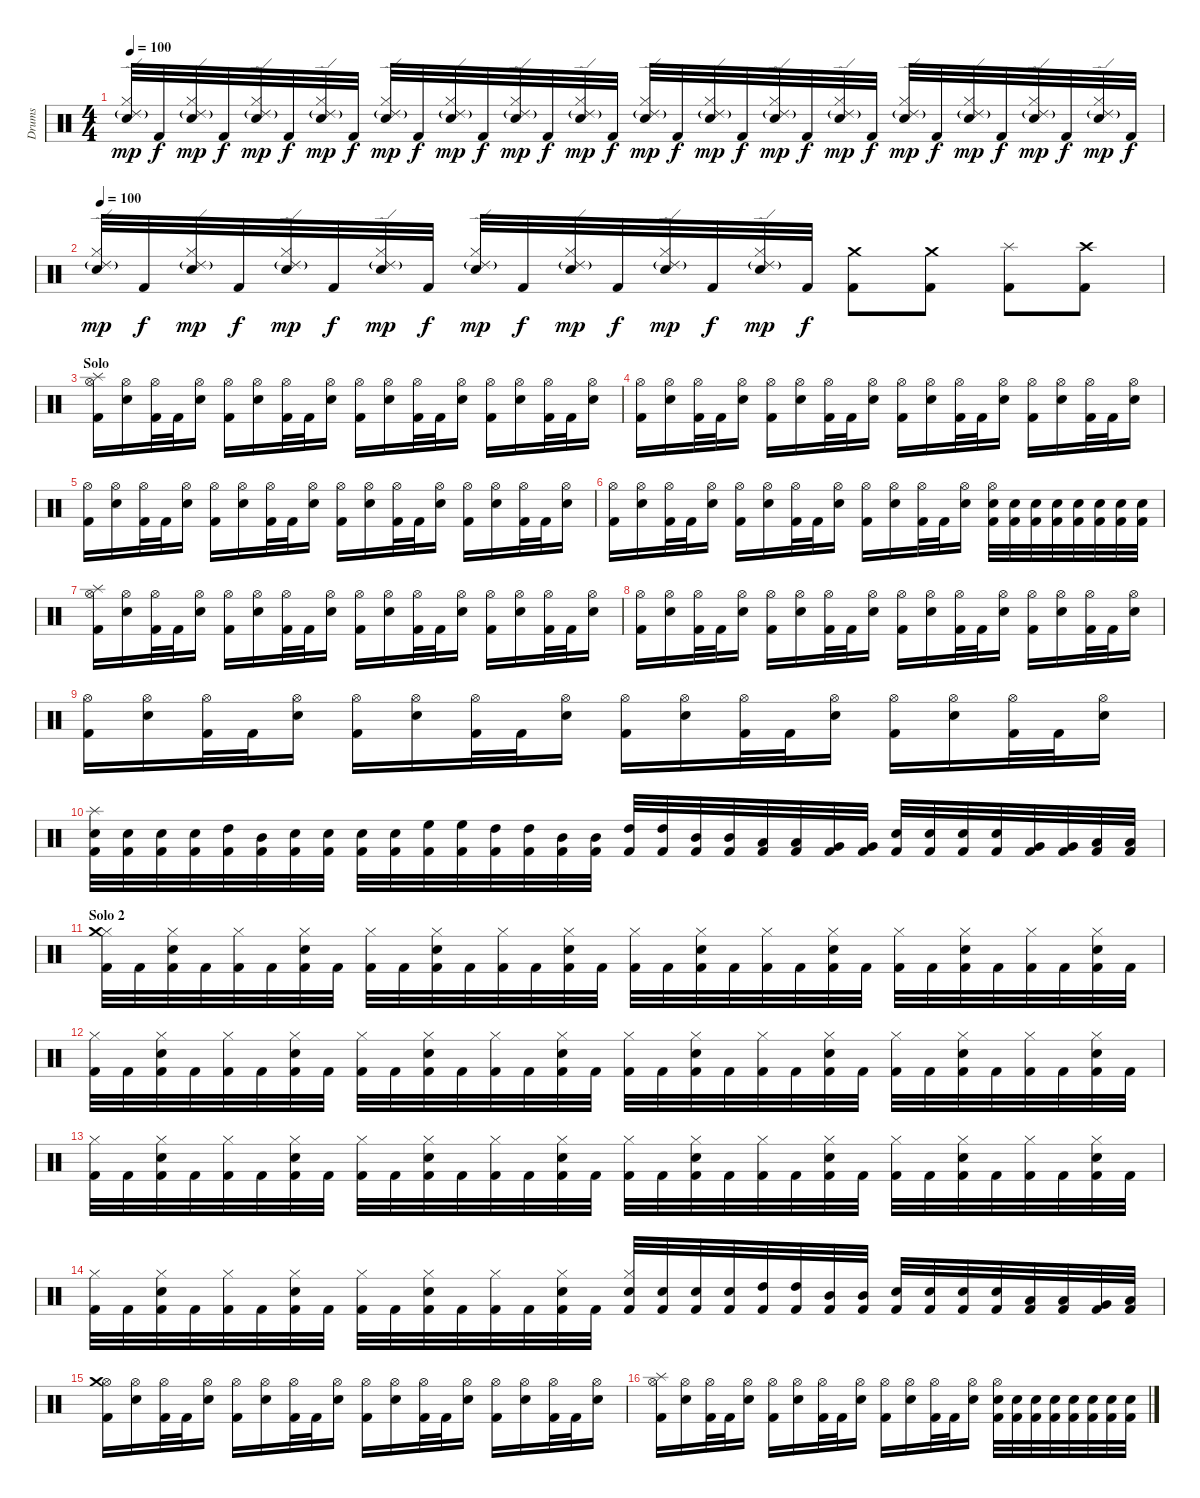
\track ("Drums" "Drums") {instrument percussion}
\staff {score}
\articulation defaults
\ts (4 4)
\tempo 100
\clef neutral
\ks c
("Snare (hit) 2" "Hi-Hat (closed)" "Ride (edge) 2"{g}).32{dy mp} "Kick (hit) 2".32{dy f} ("Snare (hit) 2" "Hi-Hat (closed)" "Ride (edge) 2"{g}).32{dy mp} "Kick (hit) 2".32{dy f} ("Snare (hit) 2" "Hi-Hat (closed)" "Ride (edge) 2"{g}).32{dy mp} "Kick (hit) 2".32{dy f} ("Snare (hit) 2" "Hi-Hat (closed)" "Ride (edge) 2"{g}).32{dy mp} "Kick (hit) 2".32{dy f} ("Snare (hit) 2" "Hi-Hat (closed)" "Ride (edge) 2"{g}).32{dy mp} "Kick (hit) 2".32{dy f} ("Snare (hit) 2" "Hi-Hat (closed)" "Ride (edge) 2"{g}).32{dy mp} "Kick (hit) 2".32{dy f} ("Snare (hit) 2" "Hi-Hat (closed)" "Ride (edge) 2"{g}).32{dy mp} "Kick (hit) 2".32{dy f} ("Snare (hit) 2" "Hi-Hat (closed)" "Ride (edge) 2"{g}).32{dy mp} "Kick (hit) 2".32{dy f} ("Snare (hit) 2" "Hi-Hat (closed)" "Ride (edge) 2"{g}).32{dy mp} "Kick (hit) 2".32{dy f} ("Snare (hit) 2" "Hi-Hat (closed)" "Ride (edge) 2"{g}).32{dy mp} "Kick (hit) 2".32{dy f} ("Snare (hit) 2" "Hi-Hat (closed)" "Ride (edge) 2"{g}).32{dy mp} "Kick (hit) 2".32{dy f} ("Snare (hit) 2" "Hi-Hat (closed)" "Ride (edge) 2"{g}).32{dy mp} "Kick (hit) 2".32{dy f} ("Snare (hit) 2" "Hi-Hat (closed)" "Ride (edge) 2"{g}).32{dy mp} "Kick (hit) 2".32{dy f} ("Snare (hit) 2" "Hi-Hat (closed)" "Ride (edge) 2"{g}).32{dy mp} "Kick (hit) 2".32{dy f} ("Snare (hit) 2" "Hi-Hat (closed)" "Ride (edge) 2"{g}).32{dy mp} "Kick (hit) 2".32{dy f} ("Snare (hit) 2" "Hi-Hat (closed)" "Ride (edge) 2"{g}).32{dy mp} "Kick (hit) 2".32{dy f} |
\tempo 100
("Snare (hit) 2" "Hi-Hat (closed)" "Ride (edge) 2"{g}).32{dy mp} "Kick (hit) 2".32{dy f} ("Snare (hit) 2" "Hi-Hat (closed)" "Ride (edge) 2"{g}).32{dy mp} "Kick (hit) 2".32{dy f} ("Snare (hit) 2" "Hi-Hat (closed)" "Ride (edge) 2"{g}).32{dy mp} "Kick (hit) 2".32{dy f} ("Snare (hit) 2" "Hi-Hat (closed)" "Ride (edge) 2"{g}).32{dy mp} "Kick (hit) 2".32{dy f} ("Snare (hit) 2" "Hi-Hat (closed)" "Ride (edge) 2"{g}).32{dy mp} "Kick (hit) 2".32{dy f} ("Snare (hit) 2" "Hi-Hat (closed)" "Ride (edge) 2"{g}).32{dy mp} "Kick (hit) 2".32{dy f} ("Snare (hit) 2" "Hi-Hat (closed)" "Ride (edge) 2"{g}).32{dy mp} "Kick (hit) 2".32{dy f} ("Snare (hit) 2" "Hi-Hat (closed)" "Ride (edge) 2"{g}).32{dy mp} "Kick (hit) 2".32{dy f} ("Kick (hit) 2" "Crash medium (hit)").8 ("Kick (hit) 2" "Crash medium (hit)").8 ("Kick (hit) 2" "Splash (hit)").8 ("Kick (hit) 2" "Crash high (hit)").8 |
\section ("" "Solo")
("Kick (hit) 2" "Hi-Hat (open)" "Splash (hit)").16 ("Snare (hit) 2" "Hi-Hat (open)").16 ("Kick (hit) 2" "Hi-Hat (open)").32 "Kick (hit) 2".32 ("Snare (hit) 2" "Hi-Hat (open)").16 ("Kick (hit) 2" "Hi-Hat (open)").16 ("Snare (hit) 2" "Hi-Hat (open)").16 ("Kick (hit) 2" "Hi-Hat (open)").32 "Kick (hit) 2".32 ("Snare (hit) 2" "Hi-Hat (open)").16 ("Kick (hit) 2" "Hi-Hat (open)").16 ("Snare (hit) 2" "Hi-Hat (open)").16 ("Kick (hit) 2" "Hi-Hat (open)").32 "Kick (hit) 2".32 ("Snare (hit) 2" "Hi-Hat (open)").16 ("Kick (hit) 2" "Hi-Hat (open)").16 ("Snare (hit) 2" "Hi-Hat (open)").16 ("Kick (hit) 2" "Hi-Hat (open)").32 "Kick (hit) 2".32 ("Snare (hit) 2" "Hi-Hat (open)").16 |
("Kick (hit) 2" "Hi-Hat (open)").16 ("Snare (hit) 2" "Hi-Hat (open)").16 ("Kick (hit) 2" "Hi-Hat (open)").32 "Kick (hit) 2".32 ("Snare (hit) 2" "Hi-Hat (open)").16 ("Kick (hit) 2" "Hi-Hat (open)").16 ("Snare (hit) 2" "Hi-Hat (open)").16 ("Kick (hit) 2" "Hi-Hat (open)").32 "Kick (hit) 2".32 ("Snare (hit) 2" "Hi-Hat (open)").16 ("Kick (hit) 2" "Hi-Hat (open)").16 ("Snare (hit) 2" "Hi-Hat (open)").16 ("Kick (hit) 2" "Hi-Hat (open)").32 "Kick (hit) 2".32 ("Snare (hit) 2" "Hi-Hat (open)").16 ("Kick (hit) 2" "Hi-Hat (open)").16 ("Snare (hit) 2" "Hi-Hat (open)").16 ("Kick (hit) 2" "Hi-Hat (open)").32 "Kick (hit) 2".32 ("Snare (hit) 2" "Hi-Hat (open)").16 |
("Kick (hit) 2" "Hi-Hat (open)").16 ("Snare (hit) 2" "Hi-Hat (open)").16 ("Kick (hit) 2" "Hi-Hat (open)").32 "Kick (hit) 2".32 ("Snare (hit) 2" "Hi-Hat (open)").16 ("Kick (hit) 2" "Hi-Hat (open)").16 ("Snare (hit) 2" "Hi-Hat (open)").16 ("Kick (hit) 2" "Hi-Hat (open)").32 "Kick (hit) 2".32 ("Snare (hit) 2" "Hi-Hat (open)").16 ("Kick (hit) 2" "Hi-Hat (open)").16 ("Snare (hit) 2" "Hi-Hat (open)").16 ("Kick (hit) 2" "Hi-Hat (open)").32 "Kick (hit) 2".32 ("Snare (hit) 2" "Hi-Hat (open)").16 ("Kick (hit) 2" "Hi-Hat (open)").16 ("Snare (hit) 2" "Hi-Hat (open)").16 ("Kick (hit) 2" "Hi-Hat (open)").32 "Kick (hit) 2".32 ("Snare (hit) 2" "Hi-Hat (open)").16 |
("Kick (hit) 2" "Hi-Hat (open)").16 ("Snare (hit) 2" "Hi-Hat (open)").16 ("Kick (hit) 2" "Hi-Hat (open)").32 "Kick (hit) 2".32 ("Snare (hit) 2" "Hi-Hat (open)").16 ("Kick (hit) 2" "Hi-Hat (open)").16 ("Snare (hit) 2" "Hi-Hat (open)").16 ("Kick (hit) 2" "Hi-Hat (open)").32 "Kick (hit) 2".32 ("Snare (hit) 2" "Hi-Hat (open)").16 ("Kick (hit) 2" "Hi-Hat (open)").16 ("Snare (hit) 2" "Hi-Hat (open)").16 ("Kick (hit) 2" "Hi-Hat (open)").32 "Kick (hit) 2".32 ("Snare (hit) 2" "Hi-Hat (open)").16 ("Kick (hit) 2" "Snare (hit) 2" "Hi-Hat (open)").32 ("Kick (hit) 2" "Snare (hit) 2").32 ("Kick (hit) 2" "Snare (hit) 2").32 ("Kick (hit) 2" "Snare (hit) 2").32 ("Kick (hit) 2" "Snare (hit) 2").32 ("Kick (hit) 2" "Snare (hit) 2").32 ("Kick (hit) 2" "Snare (hit) 2").32 ("Kick (hit) 2" "Snare (hit) 2").32 |
\section ("" "")
("Kick (hit) 2" "Hi-Hat (open)" "Splash (hit)").16 ("Snare (hit) 2" "Hi-Hat (open)").16 ("Kick (hit) 2" "Hi-Hat (open)").32 "Kick (hit) 2".32 ("Snare (hit) 2" "Hi-Hat (open)").16 ("Kick (hit) 2" "Hi-Hat (open)").16 ("Snare (hit) 2" "Hi-Hat (open)").16 ("Kick (hit) 2" "Hi-Hat (open)").32 "Kick (hit) 2".32 ("Snare (hit) 2" "Hi-Hat (open)").16 ("Kick (hit) 2" "Hi-Hat (open)").16 ("Snare (hit) 2" "Hi-Hat (open)").16 ("Kick (hit) 2" "Hi-Hat (open)").32 "Kick (hit) 2".32 ("Snare (hit) 2" "Hi-Hat (open)").16 ("Kick (hit) 2" "Hi-Hat (open)").16 ("Snare (hit) 2" "Hi-Hat (open)").16 ("Kick (hit) 2" "Hi-Hat (open)").32 "Kick (hit) 2".32 ("Snare (hit) 2" "Hi-Hat (open)").16 |
("Kick (hit) 2" "Hi-Hat (open)").16 ("Snare (hit) 2" "Hi-Hat (open)").16 ("Kick (hit) 2" "Hi-Hat (open)").32 "Kick (hit) 2".32 ("Snare (hit) 2" "Hi-Hat (open)").16 ("Kick (hit) 2" "Hi-Hat (open)").16 ("Snare (hit) 2" "Hi-Hat (open)").16 ("Kick (hit) 2" "Hi-Hat (open)").32 "Kick (hit) 2".32 ("Snare (hit) 2" "Hi-Hat (open)").16 ("Kick (hit) 2" "Hi-Hat (open)").16 ("Snare (hit) 2" "Hi-Hat (open)").16 ("Kick (hit) 2" "Hi-Hat (open)").32 "Kick (hit) 2".32 ("Snare (hit) 2" "Hi-Hat (open)").16 ("Kick (hit) 2" "Hi-Hat (open)").16 ("Snare (hit) 2" "Hi-Hat (open)").16 ("Kick (hit) 2" "Hi-Hat (open)").32 "Kick (hit) 2".32 ("Snare (hit) 2" "Hi-Hat (open)").16 |
("Kick (hit) 2" "Hi-Hat (open)").16 ("Snare (hit) 2" "Hi-Hat (open)").16 ("Kick (hit) 2" "Hi-Hat (open)").32 "Kick (hit) 2".32 ("Snare (hit) 2" "Hi-Hat (open)").16 ("Kick (hit) 2" "Hi-Hat (open)").16 ("Snare (hit) 2" "Hi-Hat (open)").16 ("Kick (hit) 2" "Hi-Hat (open)").32 "Kick (hit) 2".32 ("Snare (hit) 2" "Hi-Hat (open)").16 ("Kick (hit) 2" "Hi-Hat (open)").16 ("Snare (hit) 2" "Hi-Hat (open)").16 ("Kick (hit) 2" "Hi-Hat (open)").32 "Kick (hit) 2".32 ("Snare (hit) 2" "Hi-Hat (open)").16 ("Kick (hit) 2" "Hi-Hat (open)").16 ("Snare (hit) 2" "Hi-Hat (open)").16 ("Kick (hit) 2" "Hi-Hat (open)").32 "Kick (hit) 2".32 ("Snare (hit) 2" "Hi-Hat (open)").16 |
("Kick (hit) 2" "Snare (hit) 2" "Splash (hit)").32 ("Kick (hit) 2" "Snare (hit) 2").32 ("Kick (hit) 2" "Snare (hit) 2").32 ("Kick (hit) 2" "Snare (hit) 2").32 ("Kick (hit) 2" "High Tom (hit)").32 ("Kick (hit) 2" "Mid Tom (hit)").32 ("Kick (hit) 2" "Snare (hit) 2").32 ("Kick (hit) 2" "Snare (hit) 2").32 ("Kick (hit) 2" "Snare (hit) 2").32 ("Kick (hit) 2" "Snare (hit) 2").32 ("Kick (hit) 2" "High Floor Tom (hit)").32 ("Kick (hit) 2" "High Floor Tom (hit)").32 ("Kick (hit) 2" "High Tom (hit)").32 ("Kick (hit) 2" "High Tom (hit)").32 ("Kick (hit) 2" "Mid Tom (hit)").32 ("Kick (hit) 2" "Mid Tom (hit)").32 ("Kick (hit) 2" "High Tom (hit)").32 ("Kick (hit) 2" "High Tom (hit)").32 ("Kick (hit) 2" "Mid Tom (hit)").32 ("Kick (hit) 2" "Mid Tom (hit)").32 ("Kick (hit) 2" "Low Tom (hit)").32 ("Kick (hit) 2" "Low Tom (hit)").32 ("Kick (hit) 2" "Very Low Tom (hit)").32 ("Kick (hit) 2" "Very Low Tom (hit)").32 ("Kick (hit) 2" "Snare (hit) 2").32 ("Kick (hit) 2" "Snare (hit) 2").32 ("Kick (hit) 2" "Snare (hit) 2").32 ("Kick (hit) 2" "Snare (hit) 2").32 ("Kick (hit) 2" "Very Low Tom (hit)").32 ("Kick (hit) 2" "Very Low Tom (hit)").32 ("Kick (hit) 2" "Low Floor Tom (hit)").32 ("Kick (hit) 2" "Low Floor Tom (hit)").32 |
\section ("" "Solo 2")
("Kick (hit) 2" "Hi-Hat (closed)" "Crash medium (hit)").32 "Kick (hit) 2".32 ("Kick (hit) 2" "Snare (hit) 2" "Hi-Hat (closed)").32 "Kick (hit) 2".32 ("Kick (hit) 2" "Hi-Hat (closed)").32 "Kick (hit) 2".32 ("Kick (hit) 2" "Snare (hit) 2" "Hi-Hat (closed)").32 "Kick (hit) 2".32 ("Kick (hit) 2" "Hi-Hat (closed)").32 "Kick (hit) 2".32 ("Kick (hit) 2" "Snare (hit) 2" "Hi-Hat (closed)").32 "Kick (hit) 2".32 ("Kick (hit) 2" "Hi-Hat (closed)").32 "Kick (hit) 2".32 ("Kick (hit) 2" "Snare (hit) 2" "Hi-Hat (closed)").32 "Kick (hit) 2".32 ("Kick (hit) 2" "Hi-Hat (closed)").32 "Kick (hit) 2".32 ("Kick (hit) 2" "Snare (hit) 2" "Hi-Hat (closed)").32 "Kick (hit) 2".32 ("Kick (hit) 2" "Hi-Hat (closed)").32 "Kick (hit) 2".32 ("Kick (hit) 2" "Snare (hit) 2" "Hi-Hat (closed)").32 "Kick (hit) 2".32 ("Kick (hit) 2" "Hi-Hat (closed)").32 "Kick (hit) 2".32 ("Kick (hit) 2" "Snare (hit) 2" "Hi-Hat (closed)").32 "Kick (hit) 2".32 ("Kick (hit) 2" "Hi-Hat (closed)").32 "Kick (hit) 2".32 ("Kick (hit) 2" "Snare (hit) 2" "Hi-Hat (closed)").32 "Kick (hit) 2".32 |
("Kick (hit) 2" "Hi-Hat (closed)").32 "Kick (hit) 2".32 ("Kick (hit) 2" "Snare (hit) 2" "Hi-Hat (closed)").32 "Kick (hit) 2".32 ("Kick (hit) 2" "Hi-Hat (closed)").32 "Kick (hit) 2".32 ("Kick (hit) 2" "Snare (hit) 2" "Hi-Hat (closed)").32 "Kick (hit) 2".32 ("Kick (hit) 2" "Hi-Hat (closed)").32 "Kick (hit) 2".32 ("Kick (hit) 2" "Snare (hit) 2" "Hi-Hat (closed)").32 "Kick (hit) 2".32 ("Kick (hit) 2" "Hi-Hat (closed)").32 "Kick (hit) 2".32 ("Kick (hit) 2" "Snare (hit) 2" "Hi-Hat (closed)").32 "Kick (hit) 2".32 ("Kick (hit) 2" "Hi-Hat (closed)").32 "Kick (hit) 2".32 ("Kick (hit) 2" "Snare (hit) 2" "Hi-Hat (closed)").32 "Kick (hit) 2".32 ("Kick (hit) 2" "Hi-Hat (closed)").32 "Kick (hit) 2".32 ("Kick (hit) 2" "Snare (hit) 2" "Hi-Hat (closed)").32 "Kick (hit) 2".32 ("Kick (hit) 2" "Hi-Hat (closed)").32 "Kick (hit) 2".32 ("Kick (hit) 2" "Snare (hit) 2" "Hi-Hat (closed)").32 "Kick (hit) 2".32 ("Kick (hit) 2" "Hi-Hat (closed)").32 "Kick (hit) 2".32 ("Kick (hit) 2" "Snare (hit) 2" "Hi-Hat (closed)").32 "Kick (hit) 2".32 |
("Kick (hit) 2" "Hi-Hat (closed)").32 "Kick (hit) 2".32 ("Kick (hit) 2" "Snare (hit) 2" "Hi-Hat (closed)").32 "Kick (hit) 2".32 ("Kick (hit) 2" "Hi-Hat (closed)").32 "Kick (hit) 2".32 ("Kick (hit) 2" "Snare (hit) 2" "Hi-Hat (closed)").32 "Kick (hit) 2".32 ("Kick (hit) 2" "Hi-Hat (closed)").32 "Kick (hit) 2".32 ("Kick (hit) 2" "Snare (hit) 2" "Hi-Hat (closed)").32 "Kick (hit) 2".32 ("Kick (hit) 2" "Hi-Hat (closed)").32 "Kick (hit) 2".32 ("Kick (hit) 2" "Snare (hit) 2" "Hi-Hat (closed)").32 "Kick (hit) 2".32 ("Kick (hit) 2" "Hi-Hat (closed)").32 "Kick (hit) 2".32 ("Kick (hit) 2" "Snare (hit) 2" "Hi-Hat (closed)").32 "Kick (hit) 2".32 ("Kick (hit) 2" "Hi-Hat (closed)").32 "Kick (hit) 2".32 ("Kick (hit) 2" "Snare (hit) 2" "Hi-Hat (closed)").32 "Kick (hit) 2".32 ("Kick (hit) 2" "Hi-Hat (closed)").32 "Kick (hit) 2".32 ("Kick (hit) 2" "Snare (hit) 2" "Hi-Hat (closed)").32 "Kick (hit) 2".32 ("Kick (hit) 2" "Hi-Hat (closed)").32 "Kick (hit) 2".32 ("Kick (hit) 2" "Snare (hit) 2" "Hi-Hat (closed)").32 "Kick (hit) 2".32 |
("Kick (hit) 2" "Hi-Hat (closed)").32 "Kick (hit) 2".32 ("Kick (hit) 2" "Snare (hit) 2" "Hi-Hat (closed)").32 "Kick (hit) 2".32 ("Kick (hit) 2" "Hi-Hat (closed)").32 "Kick (hit) 2".32 ("Kick (hit) 2" "Snare (hit) 2" "Hi-Hat (closed)").32 "Kick (hit) 2".32 ("Kick (hit) 2" "Hi-Hat (closed)").32 "Kick (hit) 2".32 ("Kick (hit) 2" "Snare (hit) 2" "Hi-Hat (closed)").32 "Kick (hit) 2".32 ("Kick (hit) 2" "Hi-Hat (closed)").32 "Kick (hit) 2".32 ("Kick (hit) 2" "Snare (hit) 2" "Hi-Hat (closed)").32 "Kick (hit) 2".32 ("Kick (hit) 2" "Snare (hit) 2" "Hi-Hat (closed)").32 ("Kick (hit) 2" "Snare (hit) 2").32 ("Kick (hit) 2" "Snare (hit) 2").32 ("Kick (hit) 2" "Snare (hit) 2").32 ("Kick (hit) 2" "High Tom (hit)").32 ("Kick (hit) 2" "High Tom (hit)").32 ("Kick (hit) 2" "Mid Tom (hit)").32 ("Kick (hit) 2" "Mid Tom (hit)").32 ("Kick (hit) 2" "Snare (hit) 2").32 ("Kick (hit) 2" "Snare (hit) 2").32 ("Kick (hit) 2" "Snare (hit) 2").32 ("Kick (hit) 2" "Snare (hit) 2").32 ("Kick (hit) 2" "Low Tom (hit)").32 ("Kick (hit) 2" "Low Tom (hit)").32 ("Kick (hit) 2" "Very Low Tom (hit)").32 ("Kick (hit) 2" "Low Floor Tom (hit)").32 |
\section ("" "")
("Kick (hit) 2" "Hi-Hat (open)" "Crash medium (hit)").16 ("Snare (hit) 2" "Hi-Hat (open)").16 ("Kick (hit) 2" "Hi-Hat (open)").32 "Kick (hit) 2".32 ("Snare (hit) 2" "Hi-Hat (open)").16 ("Kick (hit) 2" "Hi-Hat (open)").16 ("Snare (hit) 2" "Hi-Hat (open)").16 ("Kick (hit) 2" "Hi-Hat (open)").32 "Kick (hit) 2".32 ("Snare (hit) 2" "Hi-Hat (open)").16 ("Kick (hit) 2" "Hi-Hat (open)").16 ("Snare (hit) 2" "Hi-Hat (open)").16 ("Kick (hit) 2" "Hi-Hat (open)").32 "Kick (hit) 2".32 ("Snare (hit) 2" "Hi-Hat (open)").16 ("Kick (hit) 2" "Hi-Hat (open)").16 ("Snare (hit) 2" "Hi-Hat (open)").16 ("Kick (hit) 2" "Hi-Hat (open)").32 "Kick (hit) 2".32 ("Snare (hit) 2" "Hi-Hat (open)").16 |
("Kick (hit) 2" "Hi-Hat (open)" "Splash (hit)").16 ("Snare (hit) 2" "Hi-Hat (open)").16 ("Kick (hit) 2" "Hi-Hat (open)").32 "Kick (hit) 2".32 ("Snare (hit) 2" "Hi-Hat (open)").16 ("Kick (hit) 2" "Hi-Hat (open)").16 ("Snare (hit) 2" "Hi-Hat (open)").16 ("Kick (hit) 2" "Hi-Hat (open)").32 "Kick (hit) 2".32 ("Snare (hit) 2" "Hi-Hat (open)").16 ("Kick (hit) 2" "Hi-Hat (open)").16 ("Snare (hit) 2" "Hi-Hat (open)").16 ("Kick (hit) 2" "Hi-Hat (open)").32 "Kick (hit) 2".32 ("Snare (hit) 2" "Hi-Hat (open)").16 ("Kick (hit) 2" "Snare (hit) 2" "Hi-Hat (open)").32 ("Kick (hit) 2" "Snare (hit) 2").32 ("Kick (hit) 2" "Snare (hit) 2").32 ("Kick (hit) 2" "Snare (hit) 2").32 ("Kick (hit) 2" "Snare (hit) 2").32 ("Kick (hit) 2" "Snare (hit) 2").32 ("Kick (hit) 2" "Snare (hit) 2").32 ("Kick (hit) 2" "Snare (hit) 2").32
